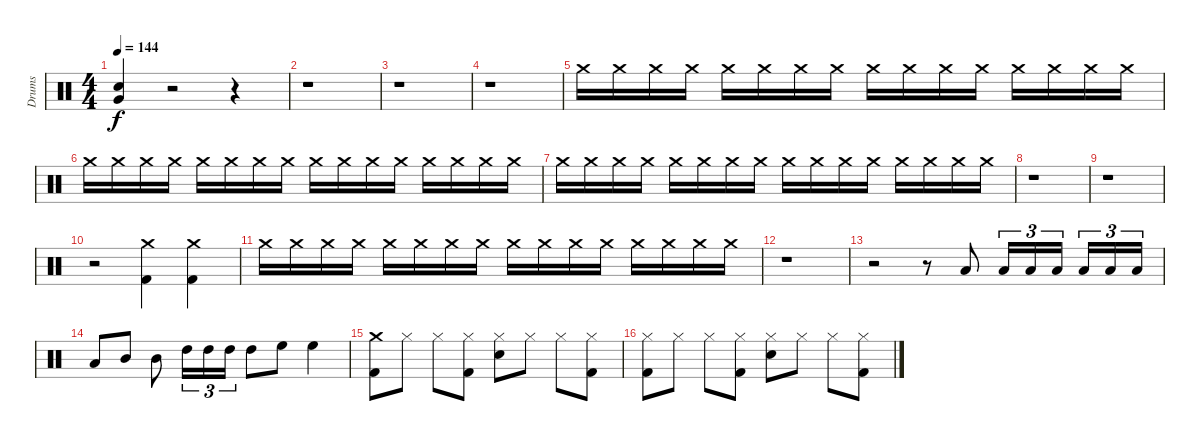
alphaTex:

\track ("Drums" "Drums") {instrument percussion}
\staff {score}
\articulation defaults
\ts (4 4)
\tempo 144
\clef neutral
\ks c
("Snare (hit) 2" "Very Low Tom (hit)").4{dy f} r.2 r.4 |
r.1 |
r.1 |
r.1 |
"Crash medium (hit)".16 "Crash medium (hit)".16 "Crash medium (hit)".16 "Crash medium (hit)".16 "Crash medium (hit)".16 "Crash medium (hit)".16 "Crash medium (hit)".16 "Crash medium (hit)".16 "Crash medium (hit)".16 "Crash medium (hit)".16 "Crash medium (hit)".16 "Crash medium (hit)".16 "Crash medium (hit)".16 "Crash medium (hit)".16 "Crash medium (hit)".16 "Crash medium (hit)".16 |
"Crash medium (hit)".16 "Crash medium (hit)".16 "Crash medium (hit)".16 "Crash medium (hit)".16 "Crash medium (hit)".16 "Crash medium (hit)".16 "Crash medium (hit)".16 "Crash medium (hit)".16 "Crash medium (hit)".16 "Crash medium (hit)".16 "Crash medium (hit)".16 "Crash medium (hit)".16 "Crash medium (hit)".16 "Crash medium (hit)".16 "Crash medium (hit)".16 "Crash medium (hit)".16 |
"Crash medium (hit)".16 "Crash medium (hit)".16 "Crash medium (hit)".16 "Crash medium (hit)".16 "Crash medium (hit)".16 "Crash medium (hit)".16 "Crash medium (hit)".16 "Crash medium (hit)".16 "Crash medium (hit)".16 "Crash medium (hit)".16 "Crash medium (hit)".16 "Crash medium (hit)".16 "Crash medium (hit)".16 "Crash medium (hit)".16 "Crash medium (hit)".16 "Crash medium (hit)".16 |
r.1 |
r.1 |
r.2 ("Crash medium (hit)" "Kick (hit) 2").4 ("Crash medium (hit)" "Kick (hit) 2").4 |
"Crash medium (hit)".16 "Crash medium (hit)".16 "Crash medium (hit)".16 "Crash medium (hit)".16 "Crash medium (hit)".16 "Crash medium (hit)".16 "Crash medium (hit)".16 "Crash medium (hit)".16 "Crash medium (hit)".16 "Crash medium (hit)".16 "Crash medium (hit)".16 "Crash medium (hit)".16 "Crash medium (hit)".16 "Crash medium (hit)".16 "Crash medium (hit)".16 "Crash medium (hit)".16 |
r.1 |
r.2 r.8 "Low Tom (hit)".8 "Low Tom (hit)".16{tu (3 2)} "Low Tom (hit)".16{tu (3 2)} "Low Tom (hit)".16{tu (3 2)} "Low Tom (hit)".16{tu (3 2)} "Low Tom (hit)".16{tu (3 2)} "Low Tom (hit)".16{tu (3 2)} |
"Low Tom (hit)".8 "Mid Tom (hit)".8 "Mid Tom (hit)".8 "High Tom (hit)".16{tu (3 2)} "High Tom (hit)".16{tu (3 2)} "High Tom (hit)".16{tu (3 2)} "High Tom (hit)".8 "High Floor Tom (hit)".8 "High Floor Tom (hit)".4 |
("Crash medium (hit)" "Kick (hit) 2").8 "Hi-Hat (closed)".8 "Hi-Hat (closed)".8 ("Kick (hit) 2" "Hi-Hat (closed)").8 ("Snare (hit) 2" "Hi-Hat (closed)").8 "Hi-Hat (closed)".8 "Hi-Hat (closed)".8 ("Kick (hit) 2" "Hi-Hat (closed)").8 |
("Kick (hit) 2" "Hi-Hat (closed)").8 "Hi-Hat (closed)".8 "Hi-Hat (closed)".8 ("Kick (hit) 2" "Hi-Hat (closed)").8 ("Snare (hit) 2" "Hi-Hat (closed)").8 "Hi-Hat (closed)".8 "Hi-Hat (closed)".8 ("Kick (hit) 2" "Hi-Hat (closed)").8
